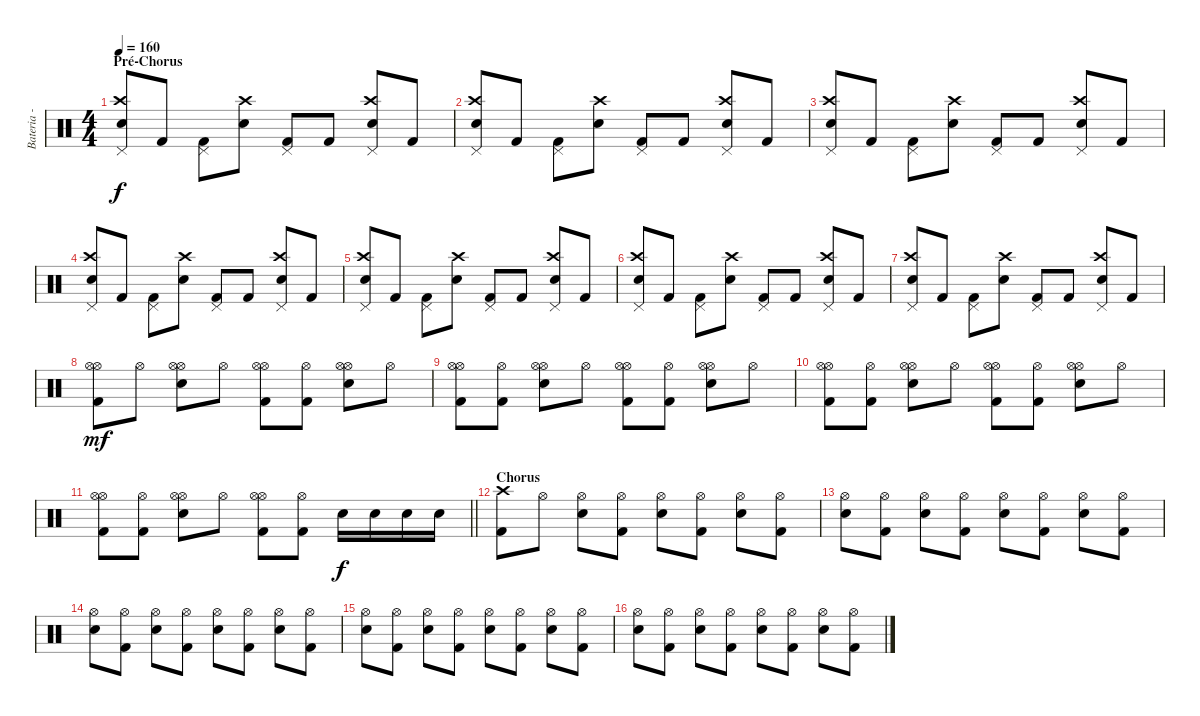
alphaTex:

\track ("Bateria - Larzon" "Bateria - ") {instrument percussion}
\staff {score}
\articulation defaults
\ts (4 4)
\section ("" "Pré-Chorus")
\tempo 160
\clef neutral
\ks c
("Electric Snare (hit)" "Crash high (hit)" "Pedal Hi-Hat (hit)").8{dy f} "Kick (hit) 2".8 ("Kick (hit) 2" "Pedal Hi-Hat (hit)").8 ("Electric Snare (hit)" "Crash high (hit)").8 ("Kick (hit) 2" "Pedal Hi-Hat (hit)").8 "Kick (hit) 2".8 ("Electric Snare (hit)" "Crash high (hit)" "Pedal Hi-Hat (hit)").8 "Kick (hit) 2".8 |
("Electric Snare (hit)" "Crash high (hit)" "Pedal Hi-Hat (hit)").8 "Kick (hit) 2".8 ("Kick (hit) 2" "Pedal Hi-Hat (hit)").8 ("Electric Snare (hit)" "Crash high (hit)").8 ("Kick (hit) 2" "Pedal Hi-Hat (hit)").8 "Kick (hit) 2".8 ("Electric Snare (hit)" "Crash high (hit)" "Pedal Hi-Hat (hit)").8 "Kick (hit) 2".8 |
("Electric Snare (hit)" "Crash high (hit)" "Pedal Hi-Hat (hit)").8 "Kick (hit) 2".8 ("Kick (hit) 2" "Pedal Hi-Hat (hit)").8 ("Electric Snare (hit)" "Crash high (hit)").8 ("Kick (hit) 2" "Pedal Hi-Hat (hit)").8 "Kick (hit) 2".8 ("Electric Snare (hit)" "Crash high (hit)" "Pedal Hi-Hat (hit)").8 "Kick (hit) 2".8 |
("Electric Snare (hit)" "Crash high (hit)" "Pedal Hi-Hat (hit)").8 "Kick (hit) 2".8 ("Kick (hit) 2" "Pedal Hi-Hat (hit)").8 ("Electric Snare (hit)" "Crash high (hit)").8 ("Kick (hit) 2" "Pedal Hi-Hat (hit)").8 "Kick (hit) 2".8 ("Electric Snare (hit)" "Crash high (hit)" "Pedal Hi-Hat (hit)").8 "Kick (hit) 2".8 |
("Electric Snare (hit)" "Crash high (hit)" "Pedal Hi-Hat (hit)").8 "Kick (hit) 2".8 ("Kick (hit) 2" "Pedal Hi-Hat (hit)").8 ("Electric Snare (hit)" "Crash high (hit)").8 ("Kick (hit) 2" "Pedal Hi-Hat (hit)").8 "Kick (hit) 2".8 ("Electric Snare (hit)" "Crash high (hit)" "Pedal Hi-Hat (hit)").8 "Kick (hit) 2".8 |
("Electric Snare (hit)" "Crash high (hit)" "Pedal Hi-Hat (hit)").8 "Kick (hit) 2".8 ("Kick (hit) 2" "Pedal Hi-Hat (hit)").8 ("Electric Snare (hit)" "Crash high (hit)").8 ("Kick (hit) 2" "Pedal Hi-Hat (hit)").8 "Kick (hit) 2".8 ("Electric Snare (hit)" "Crash high (hit)" "Pedal Hi-Hat (hit)").8 "Kick (hit) 2".8 |
("Electric Snare (hit)" "Crash high (hit)" "Pedal Hi-Hat (hit)").8 "Kick (hit) 2".8 ("Kick (hit) 2" "Pedal Hi-Hat (hit)").8 ("Electric Snare (hit)" "Crash high (hit)").8 ("Kick (hit) 2" "Pedal Hi-Hat (hit)").8 "Kick (hit) 2".8 ("Electric Snare (hit)" "Crash high (hit)" "Pedal Hi-Hat (hit)").8 "Kick (hit) 2".8 |
("Kick (hit) 2" "Hi-Hat (open)" "Hi-Hat (open)").8{dy mf} "Hi-Hat (open)".8 ("Electric Snare (hit)" "Hi-Hat (open)" "Hi-Hat (open)").8 "Hi-Hat (open)".8 ("Kick (hit) 2" "Hi-Hat (open)" "Hi-Hat (open)").8 ("Kick (hit) 2" "Hi-Hat (open)").8 ("Electric Snare (hit)" "Hi-Hat (open)" "Hi-Hat (open)").8 "Hi-Hat (open)".8 |
("Kick (hit) 2" "Hi-Hat (open)" "Hi-Hat (open)").8 ("Kick (hit) 2" "Hi-Hat (open)").8 ("Electric Snare (hit)" "Hi-Hat (open)" "Hi-Hat (open)").8 "Hi-Hat (open)".8 ("Kick (hit) 2" "Hi-Hat (open)" "Hi-Hat (open)").8 ("Kick (hit) 2" "Hi-Hat (open)").8 ("Electric Snare (hit)" "Hi-Hat (open)" "Hi-Hat (open)").8 "Hi-Hat (open)".8 |
("Kick (hit) 2" "Hi-Hat (open)" "Hi-Hat (open)").8 ("Kick (hit) 2" "Hi-Hat (open)").8 ("Electric Snare (hit)" "Hi-Hat (open)" "Hi-Hat (open)").8 "Hi-Hat (open)".8 ("Kick (hit) 2" "Hi-Hat (open)" "Hi-Hat (open)").8 ("Kick (hit) 2" "Hi-Hat (open)").8 ("Electric Snare (hit)" "Hi-Hat (open)" "Hi-Hat (open)").8 "Hi-Hat (open)".8 |
\barLineRight lightlight
("Kick (hit) 2" "Hi-Hat (open)" "Hi-Hat (open)").8 ("Kick (hit) 2" "Hi-Hat (open)").8 ("Electric Snare (hit)" "Hi-Hat (open)" "Hi-Hat (open)").8 "Hi-Hat (open)".8 ("Kick (hit) 2" "Hi-Hat (open)" "Hi-Hat (open)").8 ("Kick (hit) 2" "Hi-Hat (open)").8 "Electric Snare (hit)".16{dy f} "Electric Snare (hit)".16 "Electric Snare (hit)".16 "Electric Snare (hit)".16 |
\section ("" "Chorus")
("Kick (hit) 2" "Crash high (hit)").8 "Hi-Hat (open)".8 ("Electric Snare (hit)" "Hi-Hat (open)").8 ("Kick (hit) 2" "Hi-Hat (open)").8 ("Electric Snare (hit)" "Hi-Hat (open)").8 ("Kick (hit) 2" "Hi-Hat (open)").8 ("Electric Snare (hit)" "Hi-Hat (open)").8 ("Kick (hit) 2" "Hi-Hat (open)").8 |
("Electric Snare (hit)" "Hi-Hat (open)").8 ("Kick (hit) 2" "Hi-Hat (open)").8 ("Electric Snare (hit)" "Hi-Hat (open)").8 ("Kick (hit) 2" "Hi-Hat (open)").8 ("Electric Snare (hit)" "Hi-Hat (open)").8 ("Kick (hit) 2" "Hi-Hat (open)").8 ("Electric Snare (hit)" "Hi-Hat (open)").8 ("Kick (hit) 2" "Hi-Hat (open)").8 |
("Electric Snare (hit)" "Hi-Hat (open)").8 ("Kick (hit) 2" "Hi-Hat (open)").8 ("Electric Snare (hit)" "Hi-Hat (open)").8 ("Kick (hit) 2" "Hi-Hat (open)").8 ("Electric Snare (hit)" "Hi-Hat (open)").8 ("Kick (hit) 2" "Hi-Hat (open)").8 ("Electric Snare (hit)" "Hi-Hat (open)").8 ("Kick (hit) 2" "Hi-Hat (open)").8 |
("Electric Snare (hit)" "Hi-Hat (open)").8 ("Kick (hit) 2" "Hi-Hat (open)").8 ("Electric Snare (hit)" "Hi-Hat (open)").8 ("Kick (hit) 2" "Hi-Hat (open)").8 ("Electric Snare (hit)" "Hi-Hat (open)").8 ("Kick (hit) 2" "Hi-Hat (open)").8 ("Electric Snare (hit)" "Hi-Hat (open)").8 ("Kick (hit) 2" "Hi-Hat (open)").8 |
("Electric Snare (hit)" "Hi-Hat (open)").8 ("Kick (hit) 2" "Hi-Hat (open)").8 ("Electric Snare (hit)" "Hi-Hat (open)").8 ("Kick (hit) 2" "Hi-Hat (open)").8 ("Electric Snare (hit)" "Hi-Hat (open)").8 ("Kick (hit) 2" "Hi-Hat (open)").8 ("Electric Snare (hit)" "Hi-Hat (open)").8 ("Kick (hit) 2" "Hi-Hat (open)").8
